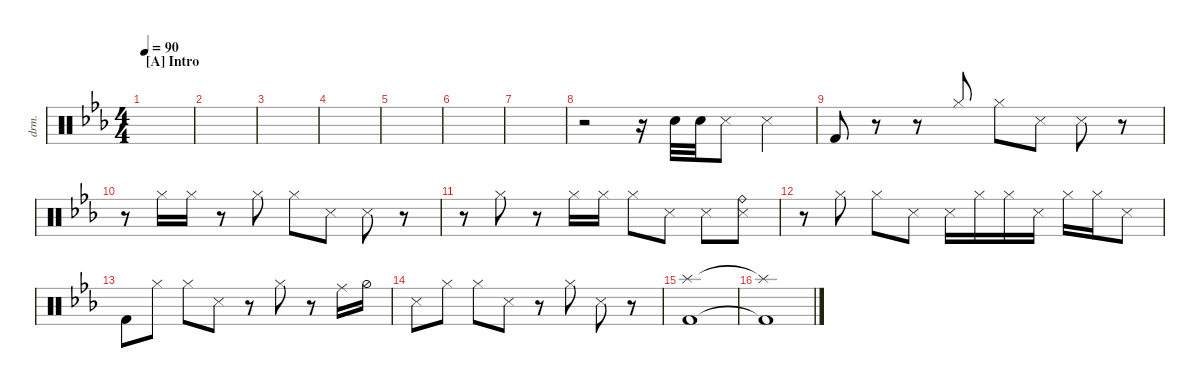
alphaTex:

\defaultSystemsLayout 4
\hideDynamics
\bracketExtendMode nobrackets
\otherSystemsTrackNameOrientation horizontal
\track ("Drumkit" "drm.") {instrument percussion}
\staff {score}
\articulation defaults
\ts (4 4)
\section ("A" "Intro")
\tempo 90
\clef neutral
\ks cminor
|
|
|
|
|
|
|
r.2{beam Down} r.16{beam Down} "Snare (hit) 2"{acc forcenatural}.32{beam Down} "Snare (hit) 2"{acc forcenatural}.32{beam Down} "Snare (side stick) 3"{acc forcenatural}.8{dy mf beam Down} "Snare (side stick) 3"{acc forcenatural}.4{beam Down} |
"Kick (hit) 2"{acc forcenatural}.8{beam Up} r.8{beam Up} r.8{beam Up} "Hi-Hat (closed)"{acc forcenatural}.8{beam Down} "Hi-Hat (closed)"{acc forcenatural}.8{beam Down} "Snare (side stick) 3"{acc forcenatural}.8{beam Down} "Snare (side stick) 3"{acc forcenatural}.8{beam Down} r.8{beam Down} |
r.8{beam Down} "Hi-Hat (closed)"{acc forcenatural}.16{beam Down} "Hi-Hat (closed)"{acc forcenatural}.16{beam Down} r.8{beam Down} "Hi-Hat (closed)"{acc forcenatural}.8{beam Down} "Hi-Hat (closed)"{acc forcenatural}.8{beam Down} "Snare (side stick) 3"{acc forcenatural}.8{beam Down} "Snare (side stick) 3"{acc forcenatural}.8{beam Down} r.8{beam Down} |
r.8{beam Down} "Hi-Hat (closed)"{acc forcenatural}.8{beam Down} r.8{beam Down} "Hi-Hat (closed)"{acc forcenatural}.16{beam Down} "Hi-Hat (closed)"{acc forcenatural}.16{beam Down} "Hi-Hat (closed)"{acc forcenatural}.8{beam Down} "Snare (side stick) 3"{acc forcenatural}.8{beam Down} "Snare (side stick) 3"{acc forcenatural}.8{beam Down} ("Snare (side stick) 3"{acc forcenatural} "Ride (bell)"{acc forcenatural}).8{beam Down} |
r.8{beam Down} "Hi-Hat (closed)"{acc forcenatural}.8{beam Down} "Hi-Hat (closed)"{acc forcenatural}.8{beam Down} "Snare (side stick) 3"{acc forcenatural}.8{beam Down} "Snare (side stick) 3"{acc forcenatural}.16{beam Down} "Hi-Hat (closed)"{acc forcenatural}.16{beam Down} "Hi-Hat (closed)"{acc forcenatural}.16{beam Down} "Snare (side stick) 3"{acc forcenatural}.16{beam Down} "Hi-Hat (closed)"{acc forcenatural}.16{beam Down} "Hi-Hat (closed)"{acc forcenatural}.16{beam Down} "Snare (side stick) 3"{acc forcenatural}.8{beam Down} |
"Kick (hit) 2"{acc forcenatural}.8{beam Down} "Hi-Hat (closed)"{acc forcenatural}.8{beam Down} "Hi-Hat (closed)"{acc forcenatural}.8{beam Down} "Snare (side stick) 3"{acc forcenatural}.8{beam Down} r.8{beam Down} "Hi-Hat (closed)"{acc forcenatural}.8{beam Down} r.8{beam Down} "Ride (middle)"{acc forcenatural}.16{beam Down} "Hi-Hat (half)"{acc forcenatural}.16{beam Down} |
"Snare (side stick) 3"{acc forcenatural}.8{beam Down} "Hi-Hat (closed)"{acc forcenatural}.8{beam Down} "Hi-Hat (closed)"{acc forcenatural}.8{beam Down} "Snare (side stick) 3"{acc forcenatural}.8{beam Down} r.8{beam Down} "Hi-Hat (closed)"{acc forcenatural}.8{beam Down} "Snare (side stick) 3"{acc forcenatural}.8{beam Down} r.8{beam Down} |
("Splash (hit)"{acc forcenatural} "Kick (hit) 2"{acc forcenatural}).1{beam Down} |
("Splash (hit)"{t acc forcenatural} "Kick (hit) 2"{t acc forcenatural}).1{beam Down}
